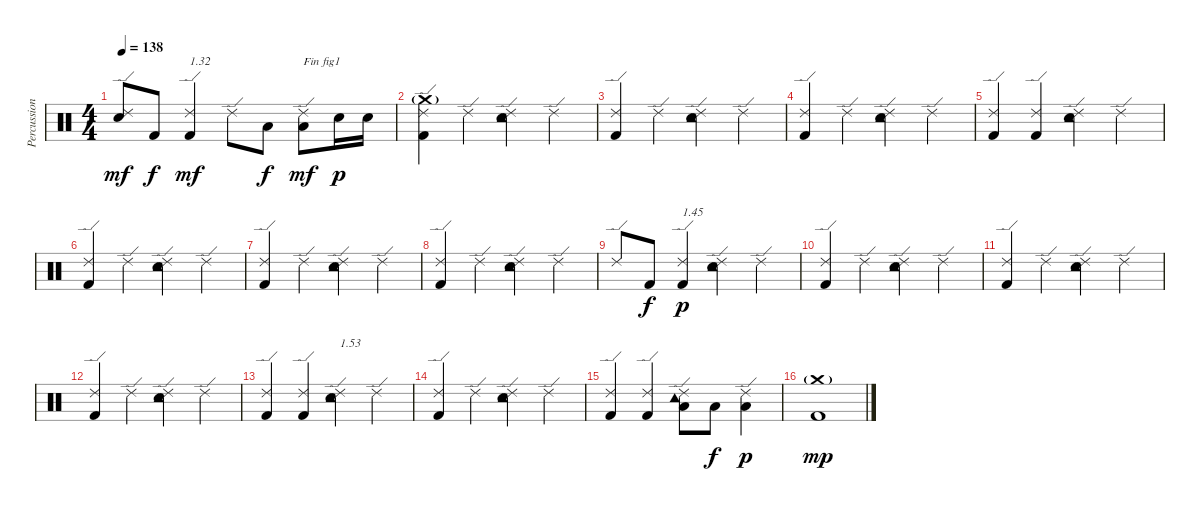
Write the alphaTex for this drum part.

\track ("Percussions" "Percussion") {instrument percussion}
\staff {score}
\articulation defaults
\ts (4 4)
\tempo 138
\clef neutral
\ks c
("Snare (hit)"{t} "Ride (edge) 2").8{dy mf} "Kick (hit) 2".8{dy f} ("Kick (hit) 2" "Ride (edge) 2").4{txt "1.32" dy mf} "Ride (edge) 2".8 "Low Floor Tom (hit)".8{dy f} ("Low Floor Tom (hit)" "Ride (edge) 2").8{txt "Fin fig1" dy mf} "Snare (hit) 2".16{dy p} "Snare (hit) 2".16 |
("Kick (hit) 2" "Crash medium (hit)"{g} "Ride (edge) 2").4 "Ride (edge) 2".4 ("Snare (hit) 2" "Tambourine (hit)" "Ride (edge) 2").4 "Ride (edge) 2".4 |
("Kick (hit) 2" "Ride (edge) 2").4 "Ride (edge) 2".4 ("Snare (hit) 2" "Tambourine (hit)" "Ride (edge) 2").4 "Ride (edge) 2".4 |
("Kick (hit) 2" "Ride (edge) 2").4 "Ride (edge) 2".4 ("Snare (hit) 2" "Tambourine (hit)" "Ride (edge) 2").4 "Ride (edge) 2".4 |
("Kick (hit) 2" "Ride (edge) 2").4 ("Kick (hit) 2" "Ride (edge) 2").4 ("Snare (hit) 2" "Tambourine (hit)" "Ride (edge) 2").4 "Ride (edge) 2".4 |
("Kick (hit) 2" "Ride (edge) 2").4 "Ride (edge) 2".4 ("Snare (hit) 2" "Tambourine (hit)" "Ride (edge) 2").4 "Ride (edge) 2".4 |
("Kick (hit) 2" "Ride (edge) 2").4 "Ride (edge) 2".4 ("Snare (hit) 2" "Tambourine (hit)" "Ride (edge) 2").4 "Ride (edge) 2".4 |
("Kick (hit) 2" "Ride (edge) 2").4 "Ride (edge) 2".4 ("Snare (hit) 2" "Tambourine (hit)" "Ride (edge) 2").4 "Ride (edge) 2".4 |
"Ride (edge) 2".8 "Kick (hit) 2".8{dy f} ("Kick (hit) 2" "Ride (edge) 2").4{txt "1.45" dy p} ("Snare (hit) 2" "Tambourine (hit)" "Ride (edge) 2").4 "Ride (edge) 2".4 |
("Kick (hit) 2" "Ride (edge) 2").4 "Ride (edge) 2".4 ("Snare (hit) 2" "Tambourine (hit)" "Ride (edge) 2").4 "Ride (edge) 2".4 |
("Kick (hit) 2" "Ride (edge) 2").4 "Ride (edge) 2".4 ("Snare (hit) 2" "Tambourine (hit)" "Ride (edge) 2").4 "Ride (edge) 2".4 |
("Kick (hit) 2" "Ride (edge) 2").4 "Ride (edge) 2".4 ("Snare (hit) 2" "Tambourine (hit)" "Ride (edge) 2").4 "Ride (edge) 2".4 |
("Kick (hit) 2" "Ride (edge) 2").4 ("Kick (hit) 2" "Ride (edge) 2").4 ("Snare (hit) 2" "Tambourine (hit)" "Ride (edge) 2").4{txt "1.53"} "Ride (edge) 2".4 |
("Kick (hit) 2" "Ride (edge) 2").4 "Ride (edge) 2".4 ("Snare (hit) 2" "Tambourine (hit)" "Ride (edge) 2").4 "Ride (edge) 2".4 |
("Kick (hit) 2" "Ride (edge) 2").4 ("Kick (hit) 2" "Ride (edge) 2").4 ("Low Floor Tom (hit)" "Tambourine (hit)" "Ride (edge) 2").8 "Low Floor Tom (hit)".8{dy f} ("Low Floor Tom (hit)" "Ride (edge) 2").4{dy p} |
("Kick (hit) 2" "Crash medium (hit)"{g}).1{dy mp}
